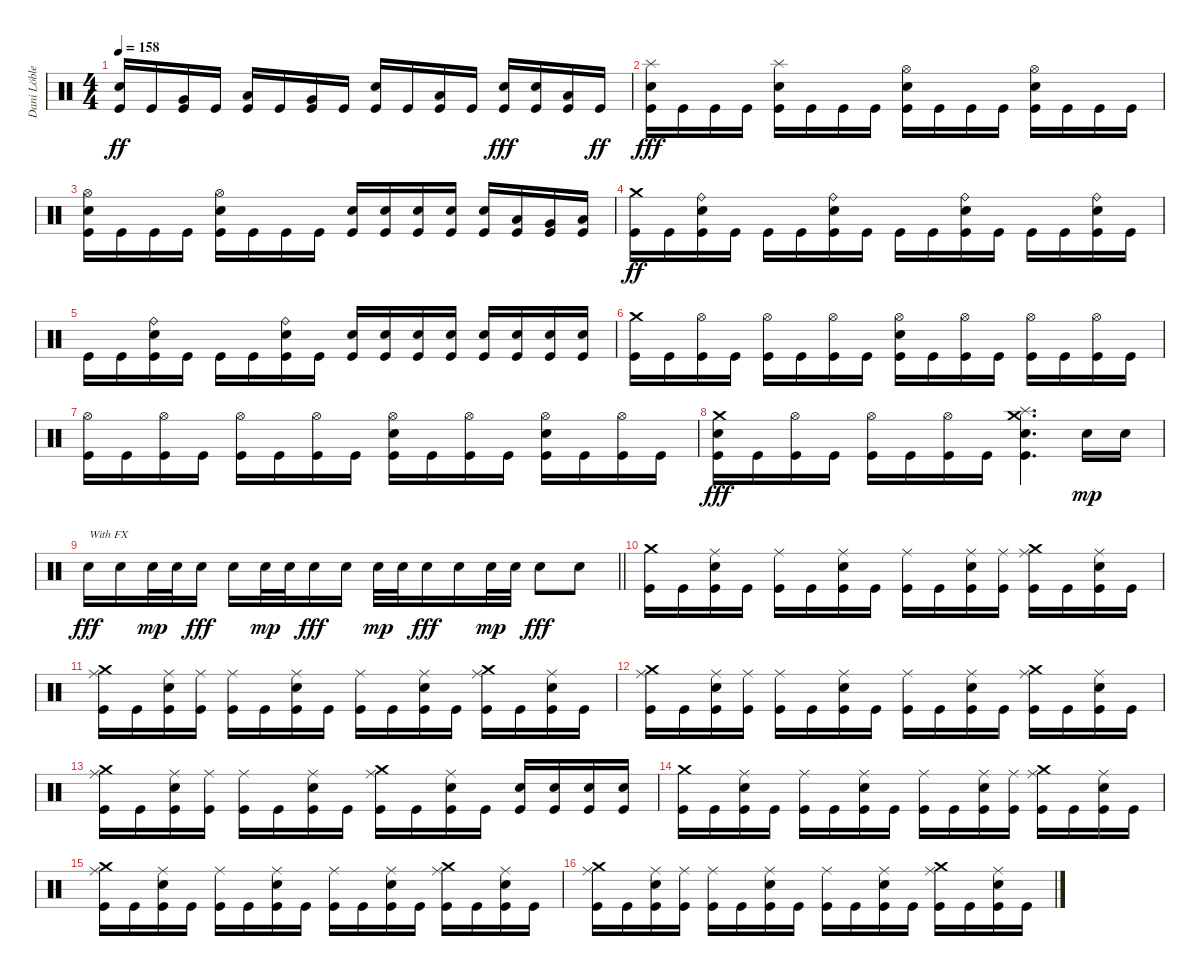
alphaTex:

\track ("Dani Löble" "Dani Löble") {instrument percussion}
\staff {score}
\articulation defaults
\ts (4 4)
\tempo 158
\clef neutral
\ks c
("Electric Snare (hit)" "Kick (hit)").16{dy ff} "Kick (hit)".16 ("Very Low Tom (hit)" "Kick (hit)").16 "Kick (hit)".16 ("Low Floor Tom (hit)" "Kick (hit)").16 "Kick (hit)".16 ("Very Low Tom (hit)" "Kick (hit)").16 "Kick (hit)".16 ("Electric Snare (hit)" "Kick (hit)").16 "Kick (hit)".16 ("Low Tom (hit)" "Kick (hit)").16 "Kick (hit)".16 ("Electric Snare (hit)" "Kick (hit)").16{dy fff} ("Electric Snare (hit)" "Kick (hit)").16 ("Low Floor Tom (hit)" "Kick (hit)").16 "Kick (hit)".16{dy ff} |
("Splash (hit)" "Electric Snare (hit)" "Kick (hit)").16{dy fff} "Kick (hit)".16 "Kick (hit)".16 "Kick (hit)".16 ("Splash (hit)" "Electric Snare (hit)" "Kick (hit)").16 "Kick (hit)".16 "Kick (hit)".16 "Kick (hit)".16 ("Hi-Hat (open)" "Electric Snare (hit)" "Kick (hit)").16 "Kick (hit)".16 "Kick (hit)".16 "Kick (hit)".16 ("Hi-Hat (open)" "Electric Snare (hit)" "Kick (hit)").16 "Kick (hit)".16 "Kick (hit)".16 "Kick (hit)".16 |
("Hi-Hat (open)" "Electric Snare (hit)" "Kick (hit)").16 "Kick (hit)".16 "Kick (hit)".16 "Kick (hit)".16 ("Hi-Hat (open)" "Electric Snare (hit)" "Kick (hit)").16 "Kick (hit)".16 "Kick (hit)".16 "Kick (hit)".16 ("Electric Snare (hit)" "Kick (hit)").16 ("Electric Snare (hit)" "Kick (hit)").16 ("Electric Snare (hit)" "Kick (hit)").16 ("Electric Snare (hit)" "Kick (hit)").16 ("Electric Snare (hit)" "Kick (hit)").16 ("Low Tom (hit)" "Kick (hit)").16 ("Very Low Tom (hit)" "Kick (hit)").16 ("Low Floor Tom (hit)" "Kick (hit)").16 |
("Crash medium (hit)" "Kick (hit)").16{dy ff} "Kick (hit)".16 ("Ride (bell)" "Electric Snare (hit)" "Kick (hit)").16 "Kick (hit)".16 "Kick (hit)".16 "Kick (hit)".16 ("Ride (bell)" "Electric Snare (hit)" "Kick (hit)").16 "Kick (hit)".16 "Kick (hit)".16 "Kick (hit)".16 ("Ride (bell)" "Electric Snare (hit)" "Kick (hit)").16 "Kick (hit)".16 "Kick (hit)".16 "Kick (hit)".16 ("Ride (bell)" "Electric Snare (hit)" "Kick (hit)").16 "Kick (hit)".16 |
"Kick (hit)".16 "Kick (hit)".16 ("Ride (bell)" "Electric Snare (hit)" "Kick (hit)").16 "Kick (hit)".16 "Kick (hit)".16 "Kick (hit)".16 ("Ride (bell)" "Electric Snare (hit)" "Kick (hit)").16 "Kick (hit)".16 ("Electric Snare (hit)" "Kick (hit)").16 ("Electric Snare (hit)" "Kick (hit)").16 ("Electric Snare (hit)" "Kick (hit)").16 ("Electric Snare (hit)" "Kick (hit)").16 ("Electric Snare (hit)" "Kick (hit)").16 ("Electric Snare (hit)" "Kick (hit)").16 ("Electric Snare (hit)" "Kick (hit)").16 ("Electric Snare (hit)" "Kick (hit)").16 |
("Crash medium (hit)" "Kick (hit)").16 "Kick (hit)".16 ("Hi-Hat (open)" "Kick (hit)").16 "Kick (hit)".16 ("Hi-Hat (open)" "Kick (hit)").16 "Kick (hit)".16 ("Hi-Hat (open)" "Kick (hit)").16 "Kick (hit)".16 ("Hi-Hat (open)" "Electric Snare (hit)" "Kick (hit)").16 "Kick (hit)".16 ("Hi-Hat (open)" "Kick (hit)").16 "Kick (hit)".16 ("Hi-Hat (open)" "Kick (hit)").16 "Kick (hit)".16 ("Hi-Hat (open)" "Kick (hit)").16 "Kick (hit)".16 |
("Hi-Hat (open)" "Kick (hit)").16 "Kick (hit)".16 ("Hi-Hat (open)" "Kick (hit)").16 "Kick (hit)".16 ("Hi-Hat (open)" "Kick (hit)").16 "Kick (hit)".16 ("Hi-Hat (open)" "Kick (hit)").16 "Kick (hit)".16 ("Hi-Hat (open)" "Electric Snare (hit)" "Kick (hit)").16 "Kick (hit)".16 ("Hi-Hat (open)" "Kick (hit)").16 "Kick (hit)".16 ("Hi-Hat (open)" "Electric Snare (hit)" "Kick (hit)").16 "Kick (hit)".16 ("Hi-Hat (open)" "Kick (hit)").16 "Kick (hit)".16 |
("Crash medium (hit)" "Electric Snare (hit)" "Kick (hit)").16{dy fff} "Kick (hit)".16 ("Hi-Hat (open)" "Kick (hit)").16 "Kick (hit)".16 ("Hi-Hat (open)" "Kick (hit)").16 "Kick (hit)".16 ("Hi-Hat (open)" "Kick (hit)").16 "Kick (hit)".16 ("Splash (hit)" "Crash medium (hit)" "Electric Snare (hit)" "Kick (hit)").4{d} "Electric Snare (hit)".16{dy mp} "Electric Snare (hit)".16 |
\barLineRight lightlight "Electric Snare (hit)".16{txt "With FX" dy fff} "Electric Snare (hit)".16 "Electric Snare (hit)".32{dy mp} "Electric Snare (hit)".32 "Electric Snare (hit)".16{dy fff} "Electric Snare (hit)".16 "Electric Snare (hit)".32{dy mp} "Electric Snare (hit)".32 "Electric Snare (hit)".16{dy fff} "Electric Snare (hit)".16 "Electric Snare (hit)".32{dy mp} "Electric Snare (hit)".32 "Electric Snare (hit)".16{dy fff} "Electric Snare (hit)".16 "Electric Snare (hit)".32{dy mp} "Electric Snare (hit)".32 "Electric Snare (hit)".8{dy fff} "Electric Snare (hit)".8
|
\section ("" "")
("Crash medium (hit)" "Kick (hit)").16 "Kick (hit)".16 ("Ride (middle)" "Electric Snare (hit)" "Kick (hit)").16 "Kick (hit)".16 ("Ride (middle)" "Kick (hit)").16 "Kick (hit)".16 ("Ride (middle)" "Electric Snare (hit)" "Kick (hit)").16 "Kick (hit)".16 ("Ride (middle)" "Kick (hit)").16 "Kick (hit)".16 ("Ride (middle)" "Electric Snare (hit)" "Kick (hit)").16 ("Ride (middle)" "Kick (hit)").16 ("Ride (middle)" "Crash medium (hit)" "Kick (hit)").16 "Kick (hit)".16 ("Ride (middle)" "Electric Snare (hit)" "Kick (hit)").16 "Kick (hit)".16 |
("Crash medium (hit)" "Ride (middle)" "Kick (hit)").16 "Kick (hit)".16 ("Ride (middle)" "Electric Snare (hit)" "Kick (hit)").16 ("Ride (middle)" "Kick (hit)").16 ("Ride (middle)" "Kick (hit)").16 "Kick (hit)".16 ("Ride (middle)" "Electric Snare (hit)" "Kick (hit)").16 "Kick (hit)".16 ("Ride (middle)" "Kick (hit)").16 "Kick (hit)".16 ("Ride (middle)" "Electric Snare (hit)" "Kick (hit)").16 "Kick (hit)".16 ("Ride (middle)" "Crash medium (hit)" "Kick (hit)").16 "Kick (hit)".16 ("Ride (middle)" "Electric Snare (hit)" "Kick (hit)").16 "Kick (hit)".16 |
("Crash medium (hit)" "Ride (middle)" "Kick (hit)").16 "Kick (hit)".16 ("Ride (middle)" "Electric Snare (hit)" "Kick (hit)").16 ("Ride (middle)" "Kick (hit)").16 ("Ride (middle)" "Kick (hit)").16 "Kick (hit)".16 ("Ride (middle)" "Electric Snare (hit)" "Kick (hit)").16 "Kick (hit)".16 ("Ride (middle)" "Kick (hit)").16 "Kick (hit)".16 ("Ride (middle)" "Electric Snare (hit)" "Kick (hit)").16 "Kick (hit)".16 ("Ride (middle)" "Crash medium (hit)" "Kick (hit)").16 "Kick (hit)".16 ("Ride (middle)" "Electric Snare (hit)" "Kick (hit)").16 "Kick (hit)".16 |
("Crash medium (hit)" "Ride (middle)" "Kick (hit)").16 "Kick (hit)".16 ("Ride (middle)" "Electric Snare (hit)" "Kick (hit)").16 ("Ride (middle)" "Kick (hit)").16 ("Ride (middle)" "Kick (hit)").16 "Kick (hit)".16 ("Ride (middle)" "Electric Snare (hit)" "Kick (hit)").16 "Kick (hit)".16 ("Ride (middle)" "Crash medium (hit)" "Kick (hit)").16 "Kick (hit)".16 ("Ride (middle)" "Electric Snare (hit)" "Kick (hit)").16 "Kick (hit)".16 ("Electric Snare (hit)" "Kick (hit)").16 ("Electric Snare (hit)" "Kick (hit)").16 ("Electric Snare (hit)" "Kick (hit)").16 ("Electric Snare (hit)" "Kick (hit)").16 |
("Crash medium (hit)" "Kick (hit)").16 "Kick (hit)".16 ("Ride (middle)" "Electric Snare (hit)" "Kick (hit)").16 "Kick (hit)".16 ("Ride (middle)" "Kick (hit)").16 "Kick (hit)".16 ("Ride (middle)" "Electric Snare (hit)" "Kick (hit)").16 "Kick (hit)".16 ("Ride (middle)" "Kick (hit)").16 "Kick (hit)".16 ("Ride (middle)" "Electric Snare (hit)" "Kick (hit)").16 ("Ride (middle)" "Kick (hit)").16 ("Ride (middle)" "Crash medium (hit)" "Kick (hit)").16 "Kick (hit)".16 ("Ride (middle)" "Electric Snare (hit)" "Kick (hit)").16 "Kick (hit)".16 |
("Crash medium (hit)" "Ride (middle)" "Kick (hit)").16 "Kick (hit)".16 ("Ride (middle)" "Electric Snare (hit)" "Kick (hit)").16 "Kick (hit)".16 ("Ride (middle)" "Kick (hit)").16 "Kick (hit)".16 ("Ride (middle)" "Electric Snare (hit)" "Kick (hit)").16 "Kick (hit)".16 ("Ride (middle)" "Kick (hit)").16 "Kick (hit)".16 ("Ride (middle)" "Electric Snare (hit)" "Kick (hit)").16 "Kick (hit)".16 ("Ride (middle)" "Crash medium (hit)" "Kick (hit)").16 "Kick (hit)".16 ("Ride (middle)" "Electric Snare (hit)" "Kick (hit)").16 "Kick (hit)".16 |
("Crash medium (hit)" "Ride (middle)" "Kick (hit)").16 "Kick (hit)".16 ("Ride (middle)" "Electric Snare (hit)" "Kick (hit)").16 ("Ride (middle)" "Kick (hit)").16 ("Ride (middle)" "Kick (hit)").16 "Kick (hit)".16 ("Ride (middle)" "Electric Snare (hit)" "Kick (hit)").16 "Kick (hit)".16 ("Ride (middle)" "Kick (hit)").16 "Kick (hit)".16 ("Ride (middle)" "Electric Snare (hit)" "Kick (hit)").16 "Kick (hit)".16 ("Ride (middle)" "Crash medium (hit)" "Kick (hit)").16 "Kick (hit)".16 ("Ride (middle)" "Electric Snare (hit)" "Kick (hit)").16 "Kick (hit)".16
